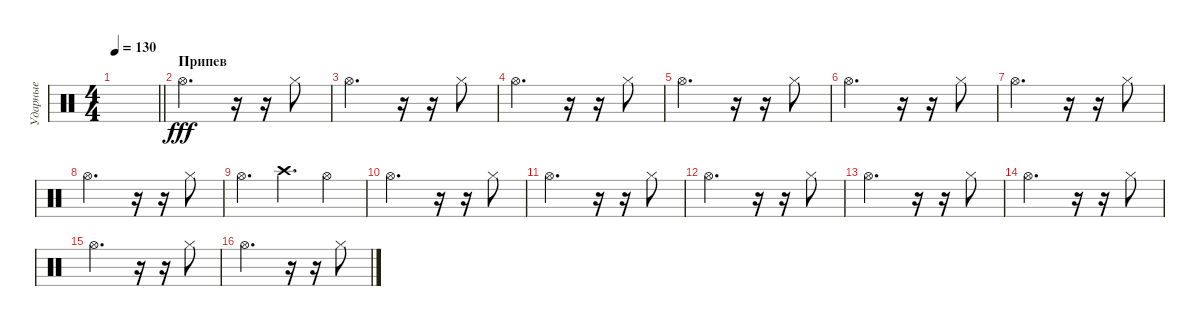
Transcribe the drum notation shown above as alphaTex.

\track ("Ударные" "Ударные") {instrument percussion}
\staff {score}
\articulation defaults
\ts (4 4)
\tempo 130
\clef neutral
\barLineRight lightlight
\ks c
|
\section ("" "Припев")
"Hi-Hat (open)".2{d dy fff} r.16 r.16 "Hi-Hat (closed)".8 |
"Hi-Hat (open)".2{d} r.16 r.16 "Hi-Hat (closed)".8 |
"Hi-Hat (open)".2{d} r.16 r.16 "Hi-Hat (closed)".8 |
"Hi-Hat (open)".2{d} r.16 r.16 "Hi-Hat (closed)".8 |
"Hi-Hat (open)".2{d} r.16 r.16 "Hi-Hat (closed)".8 |
"Hi-Hat (open)".2{d} r.16 r.16 "Hi-Hat (closed)".8 |
"Hi-Hat (open)".2{d} r.16 r.16 "Hi-Hat (closed)".8 |
"Hi-Hat (open)".4{d} "Crash high (hit)".4{d} "Hi-Hat (open)".4 |
"Hi-Hat (open)".2{d} r.16 r.16 "Hi-Hat (closed)".8 |
"Hi-Hat (open)".2{d} r.16 r.16 "Hi-Hat (closed)".8 |
"Hi-Hat (open)".2{d} r.16 r.16 "Hi-Hat (closed)".8 |
"Hi-Hat (open)".2{d} r.16 r.16 "Hi-Hat (closed)".8 |
"Hi-Hat (open)".2{d} r.16 r.16 "Hi-Hat (closed)".8 |
"Hi-Hat (open)".2{d} r.16 r.16 "Hi-Hat (closed)".8 |
"Hi-Hat (open)".2{d} r.16 r.16 "Hi-Hat (closed)".8
